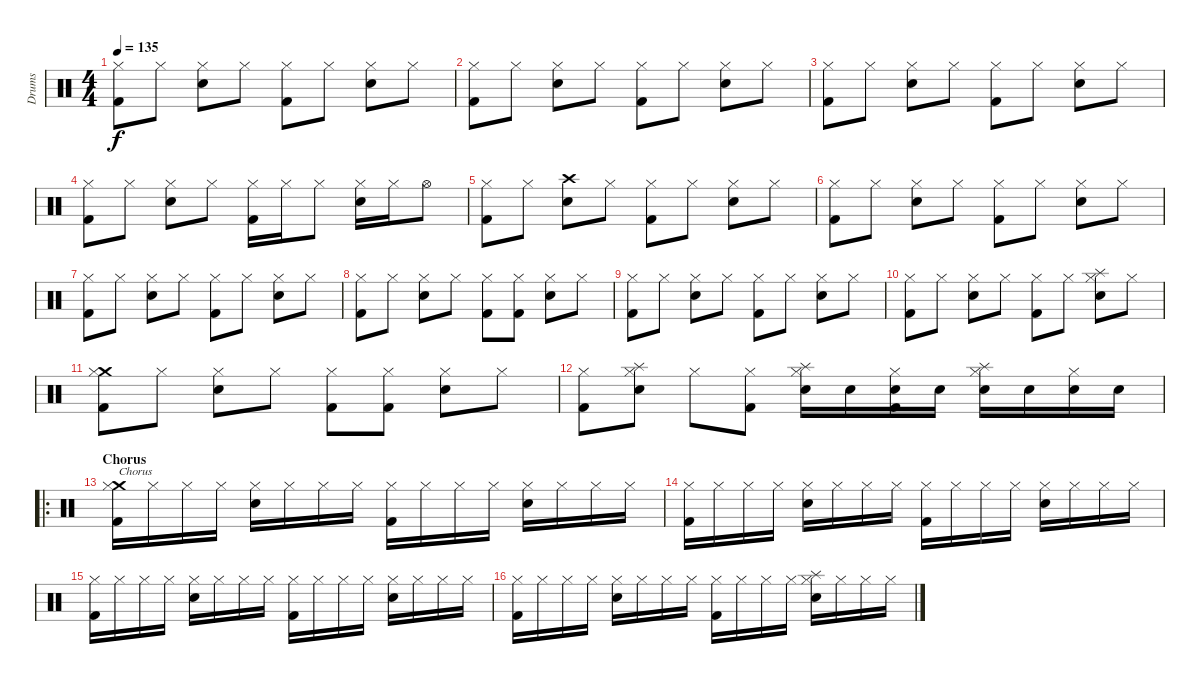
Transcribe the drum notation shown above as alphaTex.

\track ("Drums" "Drums") {instrument percussion}
\staff {score}
\articulation defaults
\ts (4 4)
\tempo 135
\clef neutral
\ks c
("Hi-Hat (closed)" "Kick (hit) 2").8{dy f} "Hi-Hat (closed)".8 ("Hi-Hat (closed)" "Snare (hit) 2").8 "Hi-Hat (closed)".8 ("Hi-Hat (closed)" "Kick (hit) 2").8 "Hi-Hat (closed)".8 ("Hi-Hat (closed)" "Snare (hit) 2").8 "Hi-Hat (closed)".8 |
("Hi-Hat (closed)" "Kick (hit) 2").8 "Hi-Hat (closed)".8 ("Hi-Hat (closed)" "Snare (hit) 2").8 "Hi-Hat (closed)".8 ("Hi-Hat (closed)" "Kick (hit) 2").8 "Hi-Hat (closed)".8 ("Hi-Hat (closed)" "Snare (hit) 2").8 "Hi-Hat (closed)".8 |
("Hi-Hat (closed)" "Kick (hit) 2").8 "Hi-Hat (closed)".8 ("Hi-Hat (closed)" "Snare (hit) 2").8 "Hi-Hat (closed)".8 ("Hi-Hat (closed)" "Kick (hit) 2").8 "Hi-Hat (closed)".8 ("Hi-Hat (closed)" "Snare (hit) 2").8 "Hi-Hat (closed)".8 |
("Hi-Hat (closed)" "Kick (hit) 2").8 "Hi-Hat (closed)".8 ("Hi-Hat (closed)" "Snare (hit) 2").8 "Hi-Hat (closed)".8 ("Hi-Hat (closed)" "Kick (hit) 2").16 "Hi-Hat (closed)".16 "Hi-Hat (closed)".8 ("Hi-Hat (closed)" "Snare (hit) 2").16 "Hi-Hat (closed)".16 "Hi-Hat (open)".8 |
("Hi-Hat (closed)" "Kick (hit) 2").8 "Hi-Hat (closed)".8 ("Crash high (hit)" "Snare (hit) 2").8 "Hi-Hat (closed)".8 ("Hi-Hat (closed)" "Kick (hit) 2").8 "Hi-Hat (closed)".8 ("Hi-Hat (closed)" "Snare (hit) 2").8 "Hi-Hat (closed)".8 |
("Hi-Hat (closed)" "Kick (hit) 2").8 "Hi-Hat (closed)".8 ("Hi-Hat (closed)" "Snare (hit) 2").8 "Hi-Hat (closed)".8 ("Hi-Hat (closed)" "Kick (hit) 2").8 "Hi-Hat (closed)".8 ("Hi-Hat (closed)" "Snare (hit) 2").8 "Hi-Hat (closed)".8 |
("Hi-Hat (closed)" "Kick (hit) 2").8 "Hi-Hat (closed)".8 ("Hi-Hat (closed)" "Snare (hit) 2").8 "Hi-Hat (closed)".8 ("Hi-Hat (closed)" "Kick (hit) 2").8 "Hi-Hat (closed)".8 ("Hi-Hat (closed)" "Snare (hit) 2").8 "Hi-Hat (closed)".8 |
("Hi-Hat (closed)" "Kick (hit) 2").8 "Hi-Hat (closed)".8 ("Hi-Hat (closed)" "Snare (hit) 2").8 "Hi-Hat (closed)".8 ("Hi-Hat (closed)" "Kick (hit) 2").8 ("Hi-Hat (closed)" "Kick (hit) 2").8 ("Hi-Hat (closed)" "Snare (hit) 2").8 "Hi-Hat (closed)".8 |
("Hi-Hat (closed)" "Kick (hit) 2").8 "Hi-Hat (closed)".8 ("Hi-Hat (closed)" "Snare (hit) 2").8 "Hi-Hat (closed)".8 ("Hi-Hat (closed)" "Kick (hit) 2").8 "Hi-Hat (closed)".8 ("Hi-Hat (closed)" "Snare (hit) 2").8 "Hi-Hat (closed)".8 |
("Hi-Hat (closed)" "Kick (hit) 2").8 "Hi-Hat (closed)".8 ("Hi-Hat (closed)" "Snare (hit) 2").8 "Hi-Hat (closed)".8 ("Hi-Hat (closed)" "Kick (hit) 2").8 "Hi-Hat (closed)".8 ("Splash (hit)" "Hi-Hat (closed)" "Snare (hit) 2").8 "Hi-Hat (closed)".8 |
("Crash medium (hit)" "Hi-Hat (closed)" "Kick (hit) 2").8 "Hi-Hat (closed)".8 ("Hi-Hat (closed)" "Snare (hit) 2").8 "Hi-Hat (closed)".8 ("Hi-Hat (closed)" "Kick (hit) 2").8 ("Hi-Hat (closed)" "Kick (hit) 2").8 ("Hi-Hat (closed)" "Snare (hit) 2").8 "Hi-Hat (closed)".8 |
("Hi-Hat (closed)" "Kick (hit) 2").8 ("Splash (hit)" "Hi-Hat (closed)" "Snare (hit) 2").8 "Hi-Hat (closed)".8 ("Hi-Hat (closed)" "Kick (hit) 2").8 ("Splash (hit)" "Hi-Hat (closed)" "Snare (hit) 2").16 "Snare (hit) 2".16 ("Hi-Hat (closed)" "Snare (hit) 2" "Kick (hit) 2").16 "Snare (hit) 2".16 ("Splash (hit)" "Hi-Hat (closed)" "Snare (hit) 2").16 "Snare (hit) 2".16 ("Hi-Hat (closed)" "Snare (hit) 2").16 "Snare (hit) 2".16 |
\ro
\section ("" "Chorus")
("Crash medium (hit)" "Hi-Hat (closed)" "Kick (hit) 2").16{txt "Chorus"} "Hi-Hat (closed)".16 "Hi-Hat (closed)".16 "Hi-Hat (closed)".16 ("Hi-Hat (closed)" "Snare (hit) 2").16 "Hi-Hat (closed)".16 "Hi-Hat (closed)".16 "Hi-Hat (closed)".16 ("Hi-Hat (closed)" "Kick (hit) 2").16 "Hi-Hat (closed)".16 "Hi-Hat (closed)".16 "Hi-Hat (closed)".16 ("Hi-Hat (closed)" "Snare (hit) 2").16 "Hi-Hat (closed)".16 "Hi-Hat (closed)".16 "Hi-Hat (closed)".16 |
("Hi-Hat (closed)" "Kick (hit) 2").16 "Hi-Hat (closed)".16 "Hi-Hat (closed)".16 "Hi-Hat (closed)".16 ("Hi-Hat (closed)" "Snare (hit) 2").16 "Hi-Hat (closed)".16 "Hi-Hat (closed)".16 "Hi-Hat (closed)".16 ("Hi-Hat (closed)" "Kick (hit) 2").16 "Hi-Hat (closed)".16 "Hi-Hat (closed)".16 "Hi-Hat (closed)".16 ("Hi-Hat (closed)" "Snare (hit) 2").16 "Hi-Hat (closed)".16 "Hi-Hat (closed)".16 "Hi-Hat (closed)".16 |
("Hi-Hat (closed)" "Kick (hit) 2").16 "Hi-Hat (closed)".16 "Hi-Hat (closed)".16 "Hi-Hat (closed)".16 ("Hi-Hat (closed)" "Snare (hit) 2").16 "Hi-Hat (closed)".16 "Hi-Hat (closed)".16 "Hi-Hat (closed)".16 ("Hi-Hat (closed)" "Kick (hit) 2").16 "Hi-Hat (closed)".16 "Hi-Hat (closed)".16 "Hi-Hat (closed)".16 ("Hi-Hat (closed)" "Snare (hit) 2").16 "Hi-Hat (closed)".16 "Hi-Hat (closed)".16 "Hi-Hat (closed)".16 |
("Hi-Hat (closed)" "Kick (hit) 2").16 "Hi-Hat (closed)".16 "Hi-Hat (closed)".16 "Hi-Hat (closed)".16 ("Hi-Hat (closed)" "Snare (hit) 2").16 "Hi-Hat (closed)".16 "Hi-Hat (closed)".16 "Hi-Hat (closed)".16 ("Hi-Hat (closed)" "Kick (hit) 2").16 "Hi-Hat (closed)".16 "Hi-Hat (closed)".16 "Hi-Hat (closed)".16 ("Splash (hit)" "Hi-Hat (closed)" "Snare (hit) 2").16 "Hi-Hat (closed)".16 "Hi-Hat (closed)".16 "Hi-Hat (closed)".16
